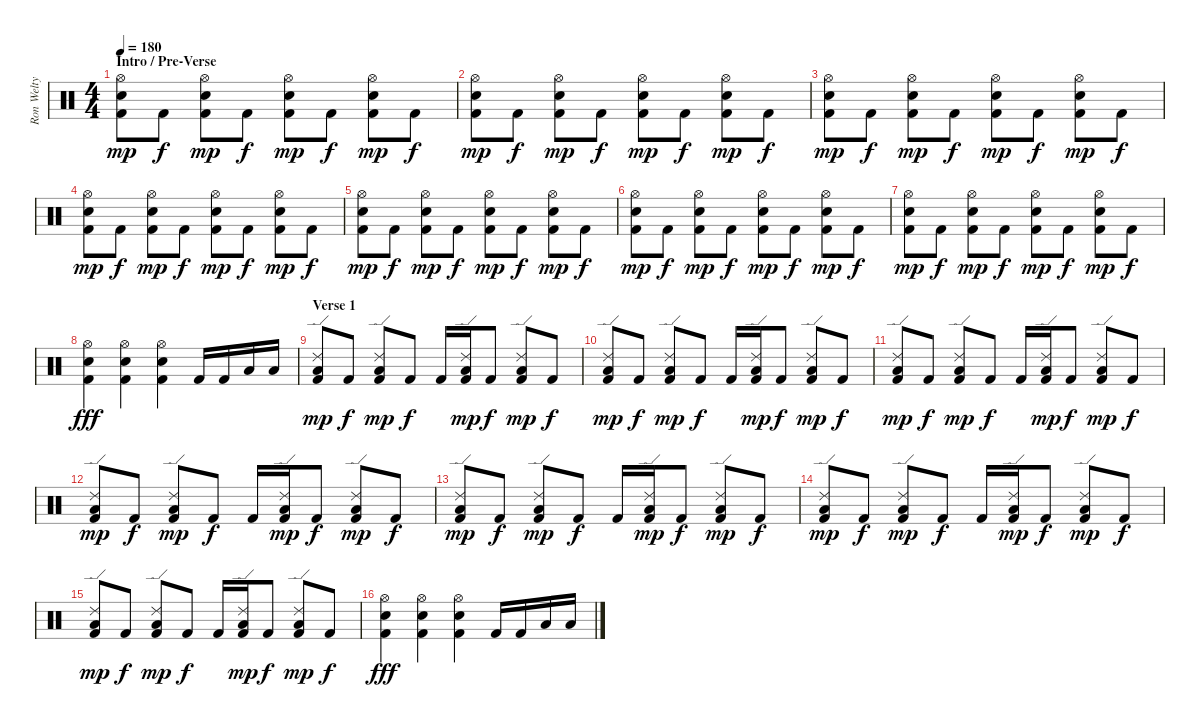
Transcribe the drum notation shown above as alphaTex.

\track ("Ron Welty" "Ron Welty") {instrument percussion}
\staff {score}
\articulation defaults
\ts (4 4)
\section ("" "Intro / Pre-Verse")
\tempo 180
\clef neutral
\ks c
("Hi-Hat (open)" "Electric Snare (hit)" "Kick (hit) 2").8{dy mp} "Kick (hit) 2".8{dy f} ("Hi-Hat (open)" "Electric Snare (hit)" "Kick (hit) 2").8{dy mp} "Kick (hit) 2".8{dy f} ("Hi-Hat (open)" "Electric Snare (hit)" "Kick (hit) 2").8{dy mp} "Kick (hit) 2".8{dy f} ("Hi-Hat (open)" "Electric Snare (hit)" "Kick (hit) 2").8{dy mp} "Kick (hit) 2".8{dy f} |
("Hi-Hat (open)" "Electric Snare (hit)" "Kick (hit) 2").8{dy mp} "Kick (hit) 2".8{dy f} ("Hi-Hat (open)" "Electric Snare (hit)" "Kick (hit) 2").8{dy mp} "Kick (hit) 2".8{dy f} ("Hi-Hat (open)" "Electric Snare (hit)" "Kick (hit) 2").8{dy mp} "Kick (hit) 2".8{dy f} ("Hi-Hat (open)" "Electric Snare (hit)" "Kick (hit) 2").8{dy mp} "Kick (hit) 2".8{dy f} |
("Hi-Hat (open)" "Electric Snare (hit)" "Kick (hit) 2").8{dy mp} "Kick (hit) 2".8{dy f} ("Hi-Hat (open)" "Electric Snare (hit)" "Kick (hit) 2").8{dy mp} "Kick (hit) 2".8{dy f} ("Hi-Hat (open)" "Electric Snare (hit)" "Kick (hit) 2").8{dy mp} "Kick (hit) 2".8{dy f} ("Hi-Hat (open)" "Electric Snare (hit)" "Kick (hit) 2").8{dy mp} "Kick (hit) 2".8{dy f} |
("Hi-Hat (open)" "Electric Snare (hit)" "Kick (hit) 2").8{dy mp} "Kick (hit) 2".8{dy f} ("Hi-Hat (open)" "Electric Snare (hit)" "Kick (hit) 2").8{dy mp} "Kick (hit) 2".8{dy f} ("Hi-Hat (open)" "Electric Snare (hit)" "Kick (hit) 2").8{dy mp} "Kick (hit) 2".8{dy f} ("Hi-Hat (open)" "Electric Snare (hit)" "Kick (hit) 2").8{dy mp} "Kick (hit) 2".8{dy f} |
("Hi-Hat (open)" "Electric Snare (hit)" "Kick (hit) 2").8{dy mp} "Kick (hit) 2".8{dy f} ("Hi-Hat (open)" "Electric Snare (hit)" "Kick (hit) 2").8{dy mp} "Kick (hit) 2".8{dy f} ("Hi-Hat (open)" "Electric Snare (hit)" "Kick (hit) 2").8{dy mp} "Kick (hit) 2".8{dy f} ("Hi-Hat (open)" "Electric Snare (hit)" "Kick (hit) 2").8{dy mp} "Kick (hit) 2".8{dy f} |
("Hi-Hat (open)" "Electric Snare (hit)" "Kick (hit) 2").8{dy mp} "Kick (hit) 2".8{dy f} ("Hi-Hat (open)" "Electric Snare (hit)" "Kick (hit) 2").8{dy mp} "Kick (hit) 2".8{dy f} ("Hi-Hat (open)" "Electric Snare (hit)" "Kick (hit) 2").8{dy mp} "Kick (hit) 2".8{dy f} ("Hi-Hat (open)" "Electric Snare (hit)" "Kick (hit) 2").8{dy mp} "Kick (hit) 2".8{dy f} |
("Hi-Hat (open)" "Electric Snare (hit)" "Kick (hit) 2").8{dy mp} "Kick (hit) 2".8{dy f} ("Hi-Hat (open)" "Electric Snare (hit)" "Kick (hit) 2").8{dy mp} "Kick (hit) 2".8{dy f} ("Hi-Hat (open)" "Electric Snare (hit)" "Kick (hit) 2").8{dy mp} "Kick (hit) 2".8{dy f} ("Hi-Hat (open)" "Electric Snare (hit)" "Kick (hit) 2").8{dy mp} "Kick (hit) 2".8{dy f} |
("Hi-Hat (open)" "Electric Snare (hit)" "Kick (hit) 2").4{dy fff} ("Hi-Hat (open)" "Electric Snare (hit)" "Kick (hit) 2").4 ("Hi-Hat (open)" "Electric Snare (hit)" "Kick (hit) 2").4 "Kick (hit) 2".16 "Kick (hit) 2".16 "Low Floor Tom (hit)".16 "Low Tom (hit)".16 |
\section ("" "Verse 1")
("Ride (edge) 2" "Low Tom (hit)" "Kick (hit) 2").8{dy mp} "Kick (hit) 2".8{dy f} ("Ride (edge) 2" "Low Tom (hit)" "Kick (hit) 2").8{dy mp} "Kick (hit) 2".8{dy f} "Kick (hit) 2".16 ("Ride (edge) 2" "Low Tom (hit)" "Kick (hit) 2").16{dy mp} "Kick (hit) 2".8{dy f} ("Ride (edge) 2" "Low Tom (hit)" "Kick (hit) 2").8{dy mp} "Kick (hit) 2".8{dy f} |
("Ride (edge) 2" "Low Tom (hit)" "Kick (hit) 2").8{dy mp} "Kick (hit) 2".8{dy f} ("Ride (edge) 2" "Low Tom (hit)" "Kick (hit) 2").8{dy mp} "Kick (hit) 2".8{dy f} "Kick (hit) 2".16 ("Ride (edge) 2" "Low Tom (hit)" "Kick (hit) 2").16{dy mp} "Kick (hit) 2".8{dy f} ("Ride (edge) 2" "Low Tom (hit)" "Kick (hit) 2").8{dy mp} "Kick (hit) 2".8{dy f} |
("Ride (edge) 2" "Low Tom (hit)" "Kick (hit) 2").8{dy mp} "Kick (hit) 2".8{dy f} ("Ride (edge) 2" "Low Tom (hit)" "Kick (hit) 2").8{dy mp} "Kick (hit) 2".8{dy f} "Kick (hit) 2".16 ("Ride (edge) 2" "Low Tom (hit)" "Kick (hit) 2").16{dy mp} "Kick (hit) 2".8{dy f} ("Ride (edge) 2" "Low Tom (hit)" "Kick (hit) 2").8{dy mp} "Kick (hit) 2".8{dy f} |
("Ride (edge) 2" "Low Tom (hit)" "Kick (hit) 2").8{dy mp} "Kick (hit) 2".8{dy f} ("Ride (edge) 2" "Low Tom (hit)" "Kick (hit) 2").8{dy mp} "Kick (hit) 2".8{dy f} "Kick (hit) 2".16 ("Ride (edge) 2" "Low Tom (hit)" "Kick (hit) 2").16{dy mp} "Kick (hit) 2".8{dy f} ("Ride (edge) 2" "Low Tom (hit)" "Kick (hit) 2").8{dy mp} "Kick (hit) 2".8{dy f} |
("Ride (edge) 2" "Low Tom (hit)" "Kick (hit) 2").8{dy mp} "Kick (hit) 2".8{dy f} ("Ride (edge) 2" "Low Tom (hit)" "Kick (hit) 2").8{dy mp} "Kick (hit) 2".8{dy f} "Kick (hit) 2".16 ("Ride (edge) 2" "Low Tom (hit)" "Kick (hit) 2").16{dy mp} "Kick (hit) 2".8{dy f} ("Ride (edge) 2" "Low Tom (hit)" "Kick (hit) 2").8{dy mp} "Kick (hit) 2".8{dy f} |
("Ride (edge) 2" "Low Tom (hit)" "Kick (hit) 2").8{dy mp} "Kick (hit) 2".8{dy f} ("Ride (edge) 2" "Low Tom (hit)" "Kick (hit) 2").8{dy mp} "Kick (hit) 2".8{dy f} "Kick (hit) 2".16 ("Ride (edge) 2" "Low Tom (hit)" "Kick (hit) 2").16{dy mp} "Kick (hit) 2".8{dy f} ("Ride (edge) 2" "Low Tom (hit)" "Kick (hit) 2").8{dy mp} "Kick (hit) 2".8{dy f} |
("Ride (edge) 2" "Low Tom (hit)" "Kick (hit) 2").8{dy mp} "Kick (hit) 2".8{dy f} ("Ride (edge) 2" "Low Tom (hit)" "Kick (hit) 2").8{dy mp} "Kick (hit) 2".8{dy f} "Kick (hit) 2".16 ("Ride (edge) 2" "Low Tom (hit)" "Kick (hit) 2").16{dy mp} "Kick (hit) 2".8{dy f} ("Ride (edge) 2" "Low Tom (hit)" "Kick (hit) 2").8{dy mp} "Kick (hit) 2".8{dy f} |
("Hi-Hat (open)" "Electric Snare (hit)" "Kick (hit) 2").4{dy fff} ("Hi-Hat (open)" "Electric Snare (hit)" "Kick (hit) 2").4 ("Hi-Hat (open)" "Electric Snare (hit)" "Kick (hit) 2").4 "Kick (hit) 2".16 "Kick (hit) 2".16 "Low Floor Tom (hit)".16 "Low Tom (hit)".16
